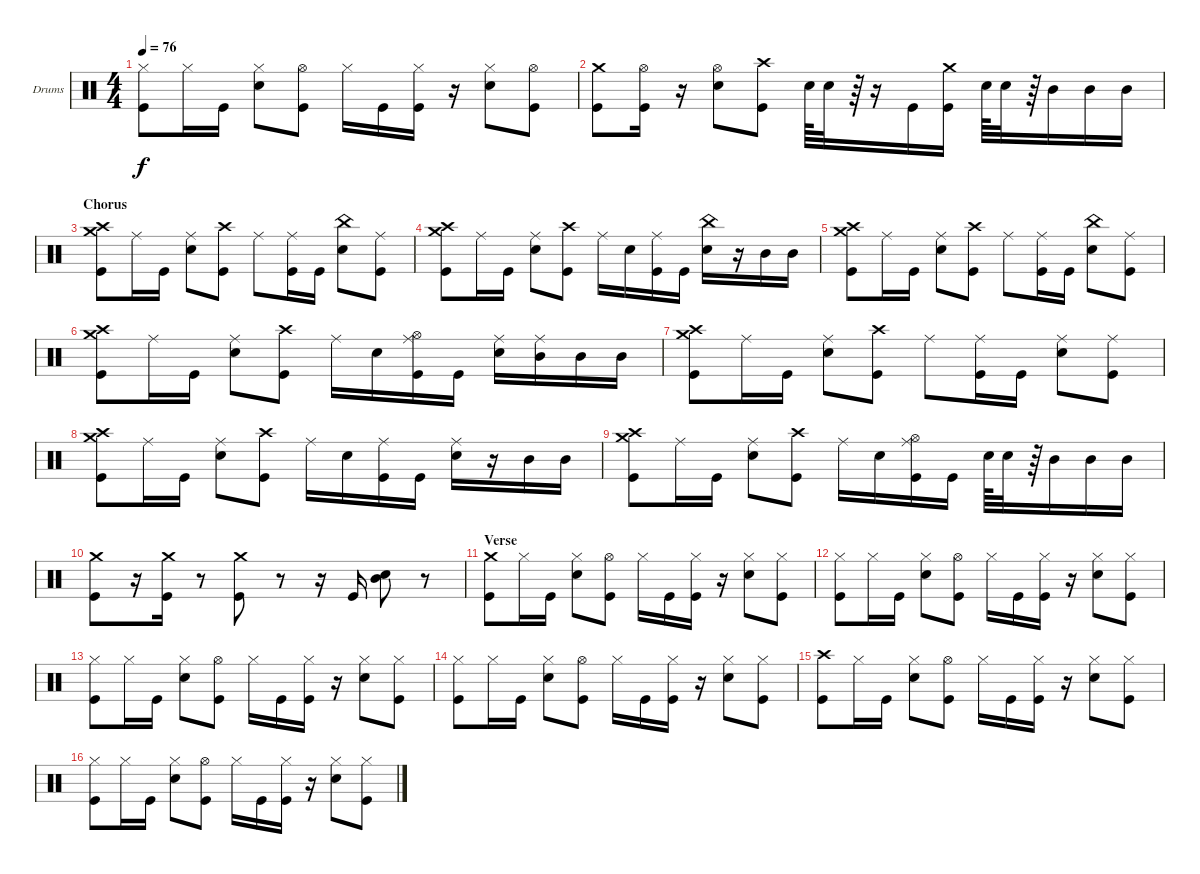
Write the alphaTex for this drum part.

\defaultSystemsLayout 4
\bracketExtendMode nobrackets
\firstSystemTrackNameOrientation horizontal
\otherSystemsTrackNameOrientation horizontal
\track ("Dave Abbruzzese" "Drums") {solo instrument percussion}
\staff {score}
\articulation defaults
\ts (4 4)
\tempo 76
\clef neutral
\ks c
("Kick (hit)" "Hi-Hat (closed)").8{dy f} "Hi-Hat (closed)".16 "Kick (hit)".16 ("Snare (hit) 2" "Hi-Hat (closed)").8 ("Kick (hit)" "Hi-Hat (open)").8 "Hi-Hat (closed)".16 "Kick (hit)".16 ("Kick (hit)" "Hi-Hat (closed)").16 r.16 ("Snare (hit) 2" "Hi-Hat (closed)").8 ("Kick (hit)" "Hi-Hat (open)").8 |
("Kick (hit)" "Crash medium (hit)").8 ("Kick (hit)" "Hi-Hat (open)").16 r.16 ("Snare (hit) 2" "Hi-Hat (open)").8 ("Kick (hit)" "Crash high (hit)").8 "Snare (hit) 2".64 "Snare (hit) 2".32 r.64 r.16 "Kick (hit)".16 ("Kick (hit)" "Crash medium (hit)").16 "Snare (hit) 2".64 "Snare (hit) 2".32 r.64 "Mid Tom (hit)".16 "Mid Tom (hit)".16 "Mid Tom (hit)".16 |
\section ("" "Chorus")
("Crash high (hit)" "Kick (hit)" "Crash medium (hit)").8 "Ride (middle)".16 "Kick (hit)".16 ("Snare (hit) 2" "Ride (middle)").8 ("Kick (hit)" "Crash high (hit)").8 "Ride (middle)".8 ("Kick (hit)" "Ride (middle)").16 "Kick (hit)".16 ("Snare (hit) 2" "China (hit)").8 ("Kick (hit)" "Ride (middle)").8 |
("Crash high (hit)" "Kick (hit)" "Crash medium (hit)").8 "Ride (middle)".16 "Kick (hit)".16 ("Snare (hit) 2" "Ride (middle)").8 ("Kick (hit)" "Crash high (hit)").8 "Ride (middle)".16 "Snare (hit) 2".16 ("Kick (hit)" "Ride (middle)").16 "Kick (hit)".16 ("Snare (hit) 2" "China (hit)").16 r.16 "Mid Tom (hit)".16 "Mid Tom (hit)".16 |
("Crash high (hit)" "Kick (hit)" "Crash medium (hit)").8 "Ride (middle)".16 "Kick (hit)".16 ("Snare (hit) 2" "Ride (middle)").8 ("Kick (hit)" "Crash high (hit)").8 "Ride (middle)".8 ("Kick (hit)" "Ride (middle)").16 "Kick (hit)".16 ("Snare (hit) 2" "China (hit)").8 ("Kick (hit)" "Ride (middle)").8 |
("Crash high (hit)" "Kick (hit)" "Crash medium (hit)").8 "Ride (middle)".16 "Kick (hit)".16 ("Snare (hit) 2" "Ride (middle)").8 ("Kick (hit)" "Crash high (hit)").8 "Ride (middle)".16 "Snare (hit) 2".16 ("Hi-Hat (open)" "Kick (hit)" "Ride (middle)").16 "Kick (hit)".16 ("Snare (hit) 2" "Ride (middle)").16 ("Mid Tom (hit)" "Ride (middle)").16 "Mid Tom (hit)".16 "Mid Tom (hit)".16 |
("Crash high (hit)" "Kick (hit)" "Crash medium (hit)").8 "Ride (middle)".16 "Kick (hit)".16 ("Snare (hit) 2" "Ride (middle)").8 ("Kick (hit)" "Crash high (hit)").8 "Ride (middle)".8 ("Kick (hit)" "Ride (middle)").16 "Kick (hit)".16 ("Snare (hit) 2" "Ride (middle)").8 ("Kick (hit)" "Ride (middle)").8 |
("Crash high (hit)" "Kick (hit)" "Crash medium (hit)").8 "Ride (middle)".16 "Kick (hit)".16 ("Snare (hit) 2" "Ride (middle)").8 ("Kick (hit)" "Crash high (hit)").8 "Ride (middle)".16 "Snare (hit) 2".16 ("Kick (hit)" "Ride (middle)").16 "Kick (hit)".16 ("Snare (hit) 2" "Ride (middle)").16 r.16 "Mid Tom (hit)".16 "Mid Tom (hit)".16 |
("Crash high (hit)" "Kick (hit)" "Crash medium (hit)").8 "Ride (middle)".16 "Kick (hit)".16 ("Snare (hit) 2" "Ride (middle)").8 ("Kick (hit)" "Crash high (hit)").8 "Ride (middle)".16 "Snare (hit) 2".16 ("Hi-Hat (open)" "Kick (hit)" "Ride (middle)").16 "Kick (hit)".16 "Snare (hit) 2".64 "Snare (hit) 2".32 r.64 "Mid Tom (hit)".16 "Mid Tom (hit)".16 "Mid Tom (hit)".16 |
("Kick (hit)" "Crash medium (hit)").8 r.16 ("Kick (hit)" "Crash medium (hit)").16 r.8 ("Kick (hit)" "Crash medium (hit)").8 r.8 r.16 "Kick (hit)".16 ("Mid Tom (hit)" "Snare (hit) 2").8 r.8 |
\section ("" "Verse")
("Kick (hit)" "Crash medium (hit)").8 "Hi-Hat (closed)".16 "Kick (hit)".16 ("Snare (hit) 2" "Hi-Hat (closed)").8 ("Kick (hit)" "Hi-Hat (open)").8 "Hi-Hat (closed)".16 "Kick (hit)".16 ("Kick (hit)" "Hi-Hat (closed)").16 r.16 ("Snare (hit) 2" "Hi-Hat (closed)").8 ("Kick (hit)" "Hi-Hat (closed)").8 |
("Kick (hit)" "Hi-Hat (closed)").8 "Hi-Hat (closed)".16 "Kick (hit)".16 ("Snare (hit) 2" "Hi-Hat (closed)").8 ("Kick (hit)" "Hi-Hat (open)").8 "Hi-Hat (closed)".16 "Kick (hit)".16 ("Kick (hit)" "Hi-Hat (closed)").16 r.16 ("Snare (hit) 2" "Hi-Hat (closed)").8 ("Kick (hit)" "Hi-Hat (closed)").8 |
("Kick (hit)" "Hi-Hat (closed)").8 "Hi-Hat (closed)".16 "Kick (hit)".16 ("Snare (hit) 2" "Hi-Hat (closed)").8 ("Kick (hit)" "Hi-Hat (open)").8 "Hi-Hat (closed)".16 "Kick (hit)".16 ("Kick (hit)" "Hi-Hat (closed)").16 r.16 ("Snare (hit) 2" "Hi-Hat (closed)").8 ("Kick (hit)" "Hi-Hat (closed)").8 |
("Kick (hit)" "Hi-Hat (closed)").8 "Hi-Hat (closed)".16 "Kick (hit)".16 ("Snare (hit) 2" "Hi-Hat (closed)").8 ("Kick (hit)" "Hi-Hat (open)").8 "Hi-Hat (closed)".16 "Kick (hit)".16 ("Kick (hit)" "Hi-Hat (closed)").16 r.16 ("Snare (hit) 2" "Hi-Hat (closed)").8 ("Kick (hit)" "Hi-Hat (closed)").8 |
("Kick (hit)" "Crash high (hit)").8 "Hi-Hat (closed)".16 "Kick (hit)".16 ("Snare (hit) 2" "Hi-Hat (closed)").8 ("Kick (hit)" "Hi-Hat (open)").8 "Hi-Hat (closed)".16 "Kick (hit)".16 ("Kick (hit)" "Hi-Hat (closed)").16 r.16 ("Snare (hit) 2" "Hi-Hat (closed)").8 ("Kick (hit)" "Hi-Hat (closed)").8 |
("Kick (hit)" "Hi-Hat (closed)").8 "Hi-Hat (closed)".16 "Kick (hit)".16 ("Snare (hit) 2" "Hi-Hat (closed)").8 ("Kick (hit)" "Hi-Hat (open)").8 "Hi-Hat (closed)".16 "Kick (hit)".16 ("Kick (hit)" "Hi-Hat (closed)").16 r.16 ("Snare (hit) 2" "Hi-Hat (closed)").8 ("Kick (hit)" "Hi-Hat (closed)").8
